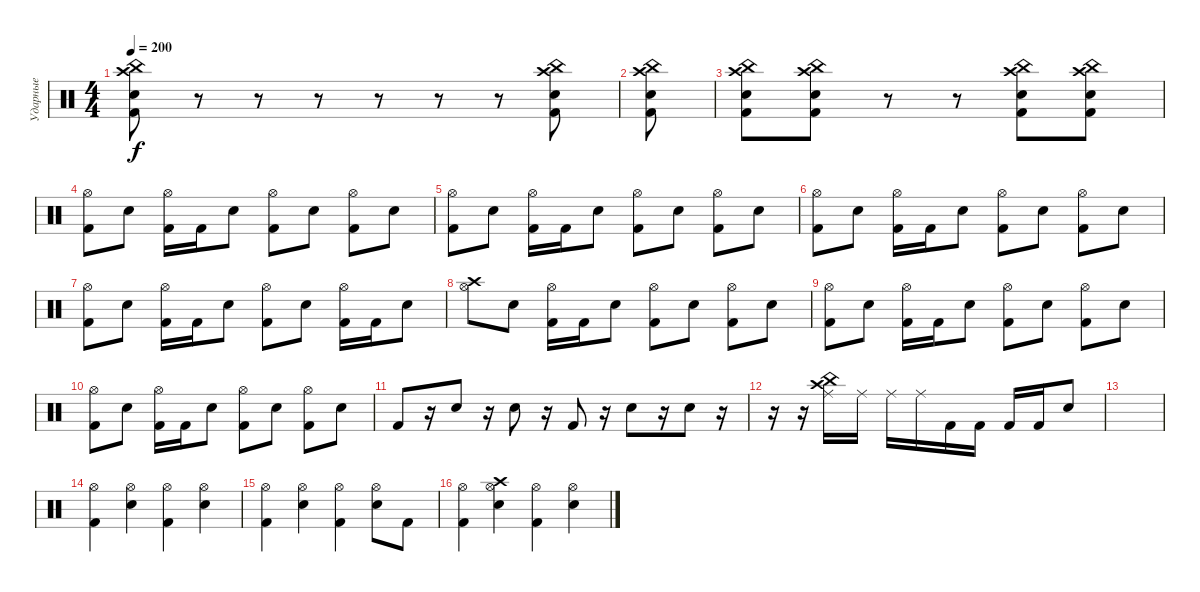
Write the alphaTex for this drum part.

\track ("Ударные" "Ударные") {instrument percussion}
\staff {score}
\articulation defaults
\ts (4 4)
\tempo 200
\clef neutral
\ks c
("China (hit)" "Crash high (hit)" "Kick (hit) 2" "Electric Snare (hit)").8{dy f} r.8 r.8 r.8 r.8 r.8 r.8 ("Electric Snare (hit)" "Kick (hit) 2" "Crash high (hit)" "China (hit)").8 |
("Kick (hit) 2" "Electric Snare (hit)" "Crash high (hit)" "China (hit)").8 |
("Kick (hit) 2" "Crash high (hit)" "Electric Snare (hit)" "China (hit)").8 ("China (hit)" "Crash high (hit)" "Kick (hit) 2" "Electric Snare (hit)").8 r.8 r.8 ("Electric Snare (hit)" "Kick (hit) 2" "Crash high (hit)" "China (hit)").8 ("China (hit)" "Crash high (hit)" "Kick (hit) 2" "Electric Snare (hit)").8 |
("Kick (hit) 2" "Hi-Hat (open)").8 "Electric Snare (hit)".8 ("Kick (hit) 2" "Hi-Hat (open)").16 "Kick (hit) 2".16 "Electric Snare (hit)".8 ("Kick (hit) 2" "Hi-Hat (open)").8 "Electric Snare (hit)".8 ("Kick (hit) 2" "Hi-Hat (open)").8 "Electric Snare (hit)".8 |
("Kick (hit) 2" "Hi-Hat (open)").8 "Electric Snare (hit)".8 ("Kick (hit) 2" "Hi-Hat (open)").16 "Kick (hit) 2".16 "Electric Snare (hit)".8 ("Kick (hit) 2" "Hi-Hat (open)").8 "Electric Snare (hit)".8 ("Kick (hit) 2" "Hi-Hat (open)").8 "Electric Snare (hit)".8 |
("Kick (hit) 2" "Hi-Hat (open)").8 "Electric Snare (hit)".8 ("Kick (hit) 2" "Hi-Hat (open)").16 "Kick (hit) 2".16 "Electric Snare (hit)".8 ("Kick (hit) 2" "Hi-Hat (open)").8 "Electric Snare (hit)".8 ("Kick (hit) 2" "Hi-Hat (open)").8 "Electric Snare (hit)".8 |
("Kick (hit) 2" "Hi-Hat (open)").8 "Electric Snare (hit)".8 ("Kick (hit) 2" "Hi-Hat (open)").16 "Kick (hit) 2".16 "Electric Snare (hit)".8 ("Kick (hit) 2" "Hi-Hat (open)").8 "Electric Snare (hit)".8 ("Kick (hit) 2" "Hi-Hat (open)").16 "Kick (hit) 2".16 "Electric Snare (hit)".8 |
("Crash high (hit)" "Hi-Hat (open)").8 "Electric Snare (hit)".8 ("Kick (hit) 2" "Hi-Hat (open)").16 "Kick (hit) 2".16 "Electric Snare (hit)".8 ("Kick (hit) 2" "Hi-Hat (open)").8 "Electric Snare (hit)".8 ("Kick (hit) 2" "Hi-Hat (open)").8 "Electric Snare (hit)".8 |
("Kick (hit) 2" "Hi-Hat (open)").8 "Electric Snare (hit)".8 ("Kick (hit) 2" "Hi-Hat (open)").16 "Kick (hit) 2".16 "Electric Snare (hit)".8 ("Kick (hit) 2" "Hi-Hat (open)").8 "Electric Snare (hit)".8 ("Kick (hit) 2" "Hi-Hat (open)").8 "Electric Snare (hit)".8 |
("Kick (hit) 2" "Hi-Hat (open)").8 "Electric Snare (hit)".8 ("Kick (hit) 2" "Hi-Hat (open)").16 "Kick (hit) 2".16 "Electric Snare (hit)".8 ("Kick (hit) 2" "Hi-Hat (open)").8 "Electric Snare (hit)".8 ("Kick (hit) 2" "Hi-Hat (open)").8 "Electric Snare (hit)".8 |
"Kick (hit) 2".8 r.16 "Electric Snare (hit)".8 r.16 "Electric Snare (hit)".8 r.16 "Kick (hit) 2".8 r.16 "Snare (hit) 2".8 r.16 "Snare (hit) 2".8 r.16 |
r.16 r.16 ("Ride (middle)" "China (hit)" "Crash high (hit)").16 "Ride (middle)".16 "Ride (middle)".16 "Ride (middle)".16 "Kick (hit) 2".16 "Kick (hit) 2".16 "Kick (hit) 2".16 "Kick (hit) 2".16 "Electric Snare (hit)".8 |
|
("Kick (hit) 2" "Hi-Hat (open)").4 ("Electric Snare (hit)" "Hi-Hat (open)").4 ("Kick (hit) 2" "Hi-Hat (open)").4 ("Electric Snare (hit)" "Hi-Hat (open)").4 |
("Kick (hit) 2" "Hi-Hat (open)").4 ("Electric Snare (hit)" "Hi-Hat (open)").4 ("Kick (hit) 2" "Hi-Hat (open)").4 ("Electric Snare (hit)" "Hi-Hat (open)").8 "Kick (hit) 2".8 |
("Kick (hit) 2" "Hi-Hat (open)").4 ("Electric Snare (hit)" "Hi-Hat (open)" "Crash high (hit)").4 ("Kick (hit) 2" "Hi-Hat (open)").4 ("Electric Snare (hit)" "Hi-Hat (open)").4
